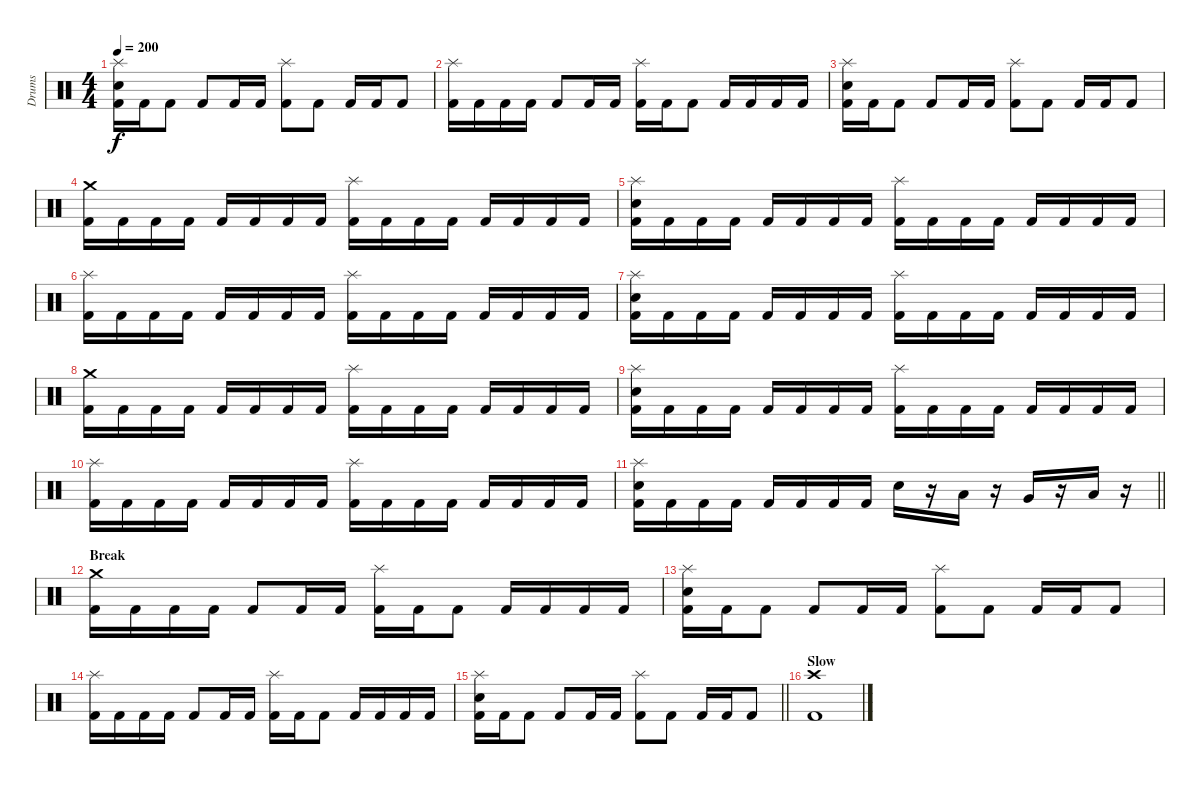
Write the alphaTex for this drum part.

\track ("Drums" "Drums") {instrument percussion}
\staff {score}
\articulation defaults
\ts (4 4)
\tempo 200
\clef neutral
\ks c
("Splash (hit)" "Electric Snare (hit)" "Kick (hit) 2").16{dy f} "Kick (hit) 2".16 "Kick (hit) 2".8 "Kick (hit) 2".8 "Kick (hit) 2".16 "Kick (hit) 2".16 ("Splash (hit)" "Kick (hit) 2").8 "Kick (hit) 2".8 "Kick (hit) 2".16 "Kick (hit) 2".16 "Kick (hit) 2".8 |
("Splash (hit)" "Kick (hit) 2").16 "Kick (hit) 2".16 "Kick (hit) 2".16 "Kick (hit) 2".16 "Kick (hit) 2".8 "Kick (hit) 2".16 "Kick (hit) 2".16 ("Splash (hit)" "Kick (hit) 2").16 "Kick (hit) 2".16 "Kick (hit) 2".8 "Kick (hit) 2".16 "Kick (hit) 2".16 "Kick (hit) 2".16 "Kick (hit) 2".16 |
("Splash (hit)" "Electric Snare (hit)" "Kick (hit) 2").16 "Kick (hit) 2".16 "Kick (hit) 2".8 "Kick (hit) 2".8 "Kick (hit) 2".16 "Kick (hit) 2".16 ("Splash (hit)" "Kick (hit) 2").8 "Kick (hit) 2".8 "Kick (hit) 2".16 "Kick (hit) 2".16 "Kick (hit) 2".8 |
("Crash medium (hit)" "Kick (hit) 2").16 "Kick (hit) 2".16 "Kick (hit) 2".16 "Kick (hit) 2".16 "Kick (hit) 2".16 "Kick (hit) 2".16 "Kick (hit) 2".16 "Kick (hit) 2".16 ("Splash (hit)" "Kick (hit) 2").16 "Kick (hit) 2".16 "Kick (hit) 2".16 "Kick (hit) 2".16 "Kick (hit) 2".16 "Kick (hit) 2".16 "Kick (hit) 2".16 "Kick (hit) 2".16 |
("Splash (hit)" "Electric Snare (hit)" "Kick (hit) 2").16 "Kick (hit) 2".16 "Kick (hit) 2".16 "Kick (hit) 2".16 "Kick (hit) 2".16 "Kick (hit) 2".16 "Kick (hit) 2".16 "Kick (hit) 2".16 ("Splash (hit)" "Kick (hit) 2").16 "Kick (hit) 2".16 "Kick (hit) 2".16 "Kick (hit) 2".16 "Kick (hit) 2".16 "Kick (hit) 2".16 "Kick (hit) 2".16 "Kick (hit) 2".16 |
("Splash (hit)" "Kick (hit) 2").16 "Kick (hit) 2".16 "Kick (hit) 2".16 "Kick (hit) 2".16 "Kick (hit) 2".16 "Kick (hit) 2".16 "Kick (hit) 2".16 "Kick (hit) 2".16 ("Splash (hit)" "Kick (hit) 2").16 "Kick (hit) 2".16 "Kick (hit) 2".16 "Kick (hit) 2".16 "Kick (hit) 2".16 "Kick (hit) 2".16 "Kick (hit) 2".16 "Kick (hit) 2".16 |
("Splash (hit)" "Electric Snare (hit)" "Kick (hit) 2").16 "Kick (hit) 2".16 "Kick (hit) 2".16 "Kick (hit) 2".16 "Kick (hit) 2".16 "Kick (hit) 2".16 "Kick (hit) 2".16 "Kick (hit) 2".16 ("Splash (hit)" "Kick (hit) 2").16 "Kick (hit) 2".16 "Kick (hit) 2".16 "Kick (hit) 2".16 "Kick (hit) 2".16 "Kick (hit) 2".16 "Kick (hit) 2".16 "Kick (hit) 2".16 |
("Crash medium (hit)" "Kick (hit) 2").16 "Kick (hit) 2".16 "Kick (hit) 2".16 "Kick (hit) 2".16 "Kick (hit) 2".16 "Kick (hit) 2".16 "Kick (hit) 2".16 "Kick (hit) 2".16 ("Splash (hit)" "Kick (hit) 2").16 "Kick (hit) 2".16 "Kick (hit) 2".16 "Kick (hit) 2".16 "Kick (hit) 2".16 "Kick (hit) 2".16 "Kick (hit) 2".16 "Kick (hit) 2".16 |
("Splash (hit)" "Electric Snare (hit)" "Kick (hit) 2").16 "Kick (hit) 2".16 "Kick (hit) 2".16 "Kick (hit) 2".16 "Kick (hit) 2".16 "Kick (hit) 2".16 "Kick (hit) 2".16 "Kick (hit) 2".16 ("Splash (hit)" "Kick (hit) 2").16 "Kick (hit) 2".16 "Kick (hit) 2".16 "Kick (hit) 2".16 "Kick (hit) 2".16 "Kick (hit) 2".16 "Kick (hit) 2".16 "Kick (hit) 2".16 |
("Splash (hit)" "Kick (hit) 2").16 "Kick (hit) 2".16 "Kick (hit) 2".16 "Kick (hit) 2".16 "Kick (hit) 2".16 "Kick (hit) 2".16 "Kick (hit) 2".16 "Kick (hit) 2".16 ("Splash (hit)" "Kick (hit) 2").16 "Kick (hit) 2".16 "Kick (hit) 2".16 "Kick (hit) 2".16 "Kick (hit) 2".16 "Kick (hit) 2".16 "Kick (hit) 2".16 "Kick (hit) 2".16 |
\barLineRight lightlight
("Splash (hit)" "Electric Snare (hit)" "Kick (hit) 2").16 "Kick (hit) 2".16 "Kick (hit) 2".16 "Kick (hit) 2".16 "Kick (hit) 2".16 "Kick (hit) 2".16 "Kick (hit) 2".16 "Kick (hit) 2".16 "Electric Snare (hit)".16 r.16 "Low Tom (hit)".16 r.16 "Very Low Tom (hit)".16 r.16 "Low Floor Tom (hit)".16 r.16 |
\section ("" "Break")
("Crash medium (hit)" "Kick (hit) 2").16 "Kick (hit) 2".16 "Kick (hit) 2".16 "Kick (hit) 2".16 "Kick (hit) 2".8 "Kick (hit) 2".16 "Kick (hit) 2".16 ("Splash (hit)" "Kick (hit) 2").16 "Kick (hit) 2".16 "Kick (hit) 2".8 "Kick (hit) 2".16 "Kick (hit) 2".16 "Kick (hit) 2".16 "Kick (hit) 2".16 |
("Splash (hit)" "Electric Snare (hit)" "Kick (hit) 2").16 "Kick (hit) 2".16 "Kick (hit) 2".8 "Kick (hit) 2".8 "Kick (hit) 2".16 "Kick (hit) 2".16 ("Splash (hit)" "Kick (hit) 2").8 "Kick (hit) 2".8 "Kick (hit) 2".16 "Kick (hit) 2".16 "Kick (hit) 2".8 |
("Splash (hit)" "Kick (hit) 2").16 "Kick (hit) 2".16 "Kick (hit) 2".16 "Kick (hit) 2".16 "Kick (hit) 2".8 "Kick (hit) 2".16 "Kick (hit) 2".16 ("Splash (hit)" "Kick (hit) 2").16 "Kick (hit) 2".16 "Kick (hit) 2".8 "Kick (hit) 2".16 "Kick (hit) 2".16 "Kick (hit) 2".16 "Kick (hit) 2".16 |
\barLineRight lightlight
("Splash (hit)" "Electric Snare (hit)" "Kick (hit) 2").16 "Kick (hit) 2".16 "Kick (hit) 2".8 "Kick (hit) 2".8 "Kick (hit) 2".16 "Kick (hit) 2".16 ("Splash (hit)" "Kick (hit) 2").8 "Kick (hit) 2".8 "Kick (hit) 2".16 "Kick (hit) 2".16 "Kick (hit) 2".8 |
\section ("" "Slow")
("Crash high (hit)" "Kick (hit) 2").1
